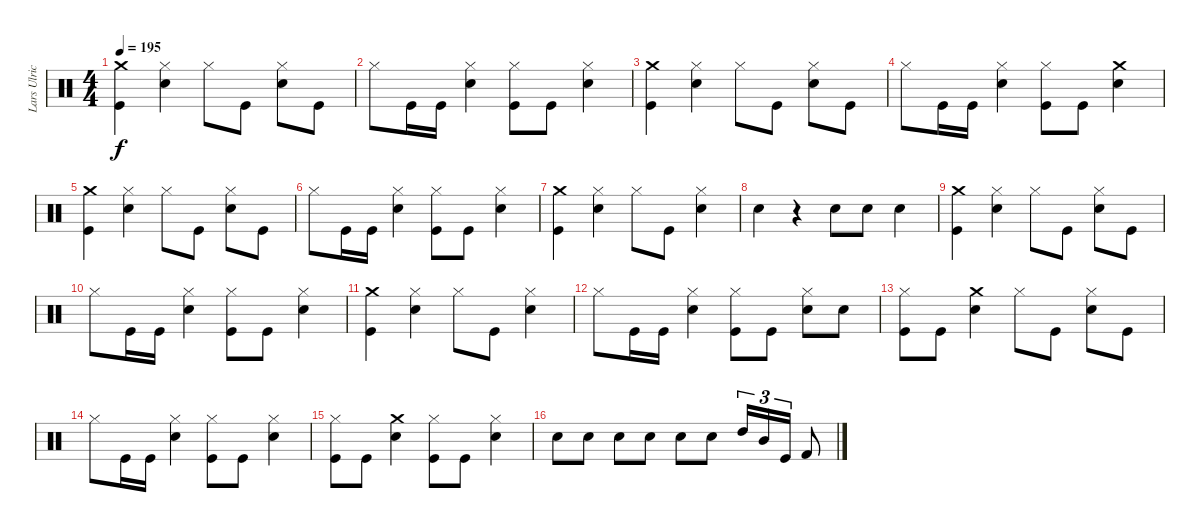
\track ("Lars Ulrich (Drums)" "Lars Ulric") {instrument percussion}
\staff {score}
\articulation defaults
\ts (4 4)
\tempo 195
\clef neutral
\ks c
("Kick (hit)" "Crash medium (hit)").4{dy f} ("Snare (hit) 2" "Hi-Hat (closed)").4 "Hi-Hat (closed)".8 "Kick (hit)".8 ("Snare (hit) 2" "Hi-Hat (closed)").8 "Kick (hit)".8 |
"Hi-Hat (closed)".8 "Kick (hit)".16 "Kick (hit)".16 ("Snare (hit) 2" "Hi-Hat (closed)").4 ("Kick (hit)" "Hi-Hat (closed)").8 "Kick (hit)".8 ("Snare (hit) 2" "Hi-Hat (closed)").4 |
("Kick (hit)" "Crash medium (hit)").4 ("Hi-Hat (closed)" "Snare (hit) 2").4 "Hi-Hat (closed)".8 "Kick (hit)".8 ("Snare (hit) 2" "Hi-Hat (closed)").8 "Kick (hit)".8 |
"Hi-Hat (closed)".8 "Kick (hit)".16 "Kick (hit)".16 ("Snare (hit) 2" "Hi-Hat (closed)").4 ("Kick (hit)" "Hi-Hat (closed)").8 "Kick (hit)".8 ("Crash medium (hit)" "Snare (hit) 2").4 |
("Kick (hit)" "Crash medium (hit)").4 ("Hi-Hat (closed)" "Snare (hit) 2").4 "Hi-Hat (closed)".8 "Kick (hit)".8 ("Snare (hit) 2" "Hi-Hat (closed)").8 "Kick (hit)".8 |
"Hi-Hat (closed)".8 "Kick (hit)".16 "Kick (hit)".16 ("Snare (hit) 2" "Hi-Hat (closed)").4 ("Kick (hit)" "Hi-Hat (closed)").8 "Kick (hit)".8 ("Snare (hit) 2" "Hi-Hat (closed)").4 |
("Kick (hit)" "Crash medium (hit)").4 ("Hi-Hat (closed)" "Snare (hit) 2").4 "Hi-Hat (closed)".8 "Kick (hit)".8 ("Snare (hit) 2" "Hi-Hat (closed)").4 |
"Snare (hit) 2".4 r.4 "Snare (hit) 2".8 "Snare (hit) 2".8 "Snare (hit) 2".4 |
("Kick (hit)" "Crash medium (hit)").4 ("Hi-Hat (closed)" "Snare (hit) 2").4 "Hi-Hat (closed)".8 "Kick (hit)".8 ("Snare (hit) 2" "Hi-Hat (closed)").8 "Kick (hit)".8 |
"Hi-Hat (closed)".8 "Kick (hit)".16 "Kick (hit)".16 ("Snare (hit) 2" "Hi-Hat (closed)").4 ("Kick (hit)" "Hi-Hat (closed)").8 "Kick (hit)".8 ("Snare (hit) 2" "Hi-Hat (closed)").4 |
("Kick (hit)" "Crash medium (hit)").4 ("Hi-Hat (closed)" "Snare (hit) 2").4 "Hi-Hat (closed)".8 "Kick (hit)".8 ("Snare (hit) 2" "Hi-Hat (closed)").4 |
"Hi-Hat (closed)".8 "Kick (hit)".16 "Kick (hit)".16 ("Snare (hit) 2" "Hi-Hat (closed)").4 ("Kick (hit)" "Hi-Hat (closed)").8 "Kick (hit)".8 ("Snare (hit) 2" "Hi-Hat (closed)").8 "Snare (hit) 2".8 |
("Kick (hit)" "Hi-Hat (closed)").8 "Kick (hit)".8 ("Crash medium (hit)" "Snare (hit) 2").4 "Hi-Hat (closed)".8 "Kick (hit)".8 ("Snare (hit) 2" "Hi-Hat (closed)").8 "Kick (hit)".8 |
"Hi-Hat (closed)".8 "Kick (hit)".16 "Kick (hit)".16 ("Snare (hit) 2" "Hi-Hat (closed)").4 ("Kick (hit)" "Hi-Hat (closed)").8 "Kick (hit)".8 ("Snare (hit) 2" "Hi-Hat (closed)").4 |
("Kick (hit)" "Hi-Hat (closed)").8 "Kick (hit)".8 ("Snare (hit) 2" "Crash medium (hit)").4 ("Kick (hit)" "Hi-Hat (closed)").8 "Kick (hit)".8 ("Snare (hit) 2" "Hi-Hat (closed)").4 |
"Snare (hit) 2".8 "Snare (hit) 2".8 "Snare (hit) 2".8 "Snare (hit) 2".8 "Snare (hit) 2".8 "Snare (hit) 2".8 "High Tom (hit)".16{tu (3 2)} "Mid Tom (hit)".16{tu (3 2)} "Kick (hit)".16{tu (3 2)} "Kick (hit) 2".8
